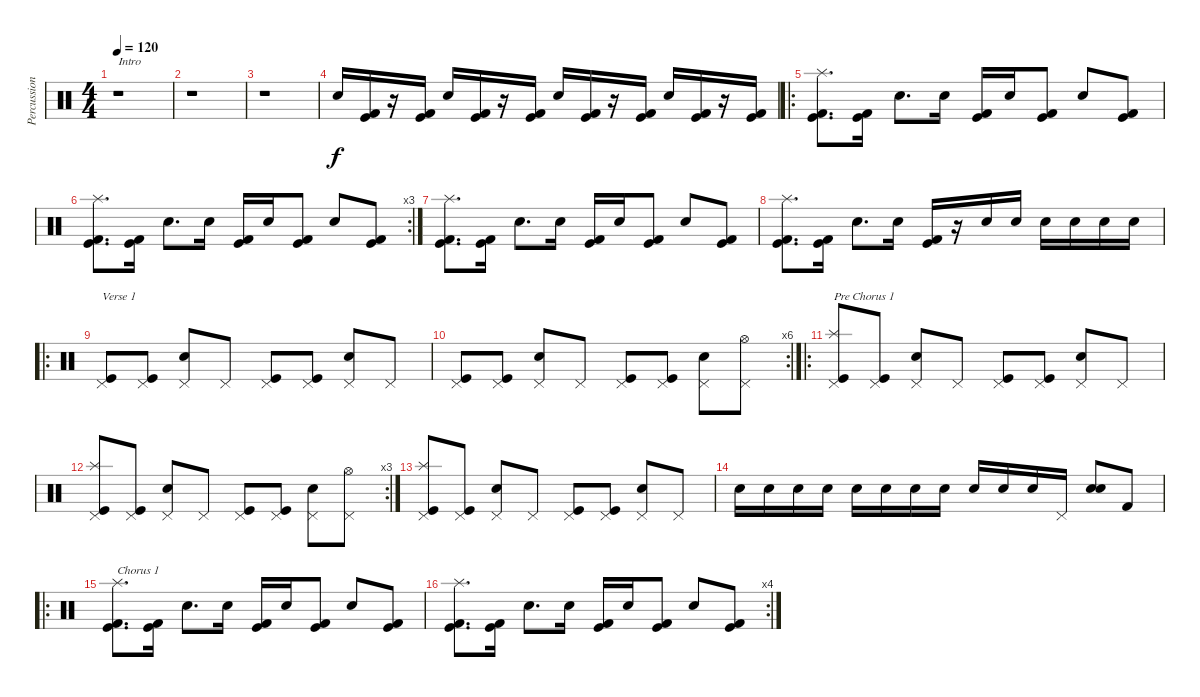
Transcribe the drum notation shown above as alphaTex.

\track ("Percussion" "Percussion") {instrument percussion}
\staff {score}
\articulation defaults
\ts (4 4)
\tempo 120
\clef neutral
\ks c
r.1{txt "Intro" dy f} |
r.1 |
r.1 |
"Electric Snare (hit)".16 ("Kick (hit) 2" "Kick (hit)").16 r.16 ("Kick (hit) 2" "Kick (hit)").16 "Electric Snare (hit)".16 ("Kick (hit) 2" "Kick (hit)").16 r.16 ("Kick (hit) 2" "Kick (hit)").16 "Electric Snare (hit)".16 ("Kick (hit) 2" "Kick (hit)").16 r.16 ("Kick (hit) 2" "Kick (hit)").16 "Electric Snare (hit)".16 ("Kick (hit) 2" "Kick (hit)").16 r.16 ("Kick (hit) 2" "Kick (hit)").16 |
\ro
("Splash (hit)" "Kick (hit)" "Kick (hit) 2").8{d} ("Kick (hit)" "Kick (hit) 2").16 "Snare (hit) 2".8{d} "Snare (hit) 2".16 ("Kick (hit)" "Kick (hit) 2").16 "Snare (hit) 2".16 ("Kick (hit)" "Kick (hit) 2").8 "Snare (hit) 2".8 ("Kick (hit)" "Kick (hit) 2").8 |
\rc 3
("Splash (hit)" "Kick (hit)" "Kick (hit) 2").8{d} ("Kick (hit)" "Kick (hit) 2").16 "Snare (hit) 2".8{d} "Snare (hit) 2".16 ("Kick (hit)" "Kick (hit) 2").16 "Snare (hit) 2".16 ("Kick (hit)" "Kick (hit) 2").8 "Snare (hit) 2".8 ("Kick (hit)" "Kick (hit) 2").8 |
("Splash (hit)" "Kick (hit)" "Kick (hit) 2").8{d} ("Kick (hit)" "Kick (hit) 2").16 "Snare (hit) 2".8{d} "Snare (hit) 2".16 ("Kick (hit)" "Kick (hit) 2").16 "Snare (hit) 2".16 ("Kick (hit)" "Kick (hit) 2").8 "Snare (hit) 2".8 ("Kick (hit)" "Kick (hit) 2").8 |
("Splash (hit)" "Kick (hit)" "Kick (hit) 2").8{d} ("Kick (hit)" "Kick (hit) 2").16 "Snare (hit) 2".8{d} "Snare (hit) 2".16 ("Kick (hit)" "Kick (hit) 2").16 r.16 "Snare (hit) 2".16 "Snare (hit) 2".16 "Snare (hit) 2".16 "Snare (hit) 2".16 "Snare (hit) 2".16 "Snare (hit) 2".16 |
\ro
("Pedal Hi-Hat (hit)" "Kick (hit)").8{txt "Verse 1"} ("Pedal Hi-Hat (hit)" "Kick (hit)").8 ("Pedal Hi-Hat (hit)" "Snare (hit) 2").8 "Pedal Hi-Hat (hit)".8 ("Pedal Hi-Hat (hit)" "Kick (hit)").8 ("Pedal Hi-Hat (hit)" "Kick (hit)").8 ("Pedal Hi-Hat (hit)" "Snare (hit) 2").8 "Pedal Hi-Hat (hit)".8 |
\rc 6
("Pedal Hi-Hat (hit)" "Kick (hit)").8 ("Pedal Hi-Hat (hit)" "Kick (hit)").8 ("Pedal Hi-Hat (hit)" "Snare (hit) 2").8 "Pedal Hi-Hat (hit)".8 ("Pedal Hi-Hat (hit)" "Kick (hit)").8 ("Pedal Hi-Hat (hit)" "Kick (hit)").8 ("Pedal Hi-Hat (hit)" "Snare (hit) 2").8 ("Pedal Hi-Hat (hit)" "Hi-Hat (open)").8 |
\ro
("Splash (hit)" "Pedal Hi-Hat (hit)" "Kick (hit)").8{txt "Pre Chorus 1"} ("Pedal Hi-Hat (hit)" "Kick (hit)").8 ("Pedal Hi-Hat (hit)" "Snare (hit) 2").8 "Pedal Hi-Hat (hit)".8 ("Pedal Hi-Hat (hit)" "Kick (hit)").8 ("Pedal Hi-Hat (hit)" "Kick (hit)").8 ("Pedal Hi-Hat (hit)" "Snare (hit) 2").8 "Pedal Hi-Hat (hit)".8 |
\rc 3
("Splash (hit)" "Pedal Hi-Hat (hit)" "Kick (hit)").8 ("Pedal Hi-Hat (hit)" "Kick (hit)").8 ("Pedal Hi-Hat (hit)" "Snare (hit) 2").8 "Pedal Hi-Hat (hit)".8 ("Pedal Hi-Hat (hit)" "Kick (hit)").8 ("Pedal Hi-Hat (hit)" "Kick (hit)").8 ("Pedal Hi-Hat (hit)" "Snare (hit) 2").8 ("Pedal Hi-Hat (hit)" "Hi-Hat (open)").8 |
("Splash (hit)" "Pedal Hi-Hat (hit)" "Kick (hit)").8 ("Pedal Hi-Hat (hit)" "Kick (hit)").8 ("Pedal Hi-Hat (hit)" "Snare (hit) 2").8 "Pedal Hi-Hat (hit)".8 ("Pedal Hi-Hat (hit)" "Kick (hit)").8 ("Pedal Hi-Hat (hit)" "Kick (hit)").8 ("Pedal Hi-Hat (hit)" "Snare (hit) 2").8 "Pedal Hi-Hat (hit)".8 |
"Snare (hit) 2".16 "Snare (hit) 2".16 "Snare (hit) 2".16 "Snare (hit) 2".16 "Snare (hit) 2".16 "Snare (hit) 2".16 "Snare (hit) 2".16 "Snare (hit) 2".16 "Snare (hit) 2".16 "Snare (hit) 2".16 "Snare (hit) 2".16 "Pedal Hi-Hat (hit)".16 ("Electric Snare (hit)" "Snare (hit) 2").8 "Kick (hit) 2".8 |
\ro
("Splash (hit)" "Kick (hit)" "Kick (hit) 2").8{d txt "Chorus 1"} ("Kick (hit)" "Kick (hit) 2").16 "Snare (hit) 2".8{d} "Snare (hit) 2".16 ("Kick (hit)" "Kick (hit) 2").16 "Snare (hit) 2".16 ("Kick (hit)" "Kick (hit) 2").8 "Snare (hit) 2".8 ("Kick (hit)" "Kick (hit) 2").8 |
\rc 4
("Splash (hit)" "Kick (hit)" "Kick (hit) 2").8{d} ("Kick (hit)" "Kick (hit) 2").16 "Snare (hit) 2".8{d} "Snare (hit) 2".16 ("Kick (hit)" "Kick (hit) 2").16 "Snare (hit) 2".16 ("Kick (hit)" "Kick (hit) 2").8 "Snare (hit) 2".8 ("Kick (hit)" "Kick (hit) 2").8
